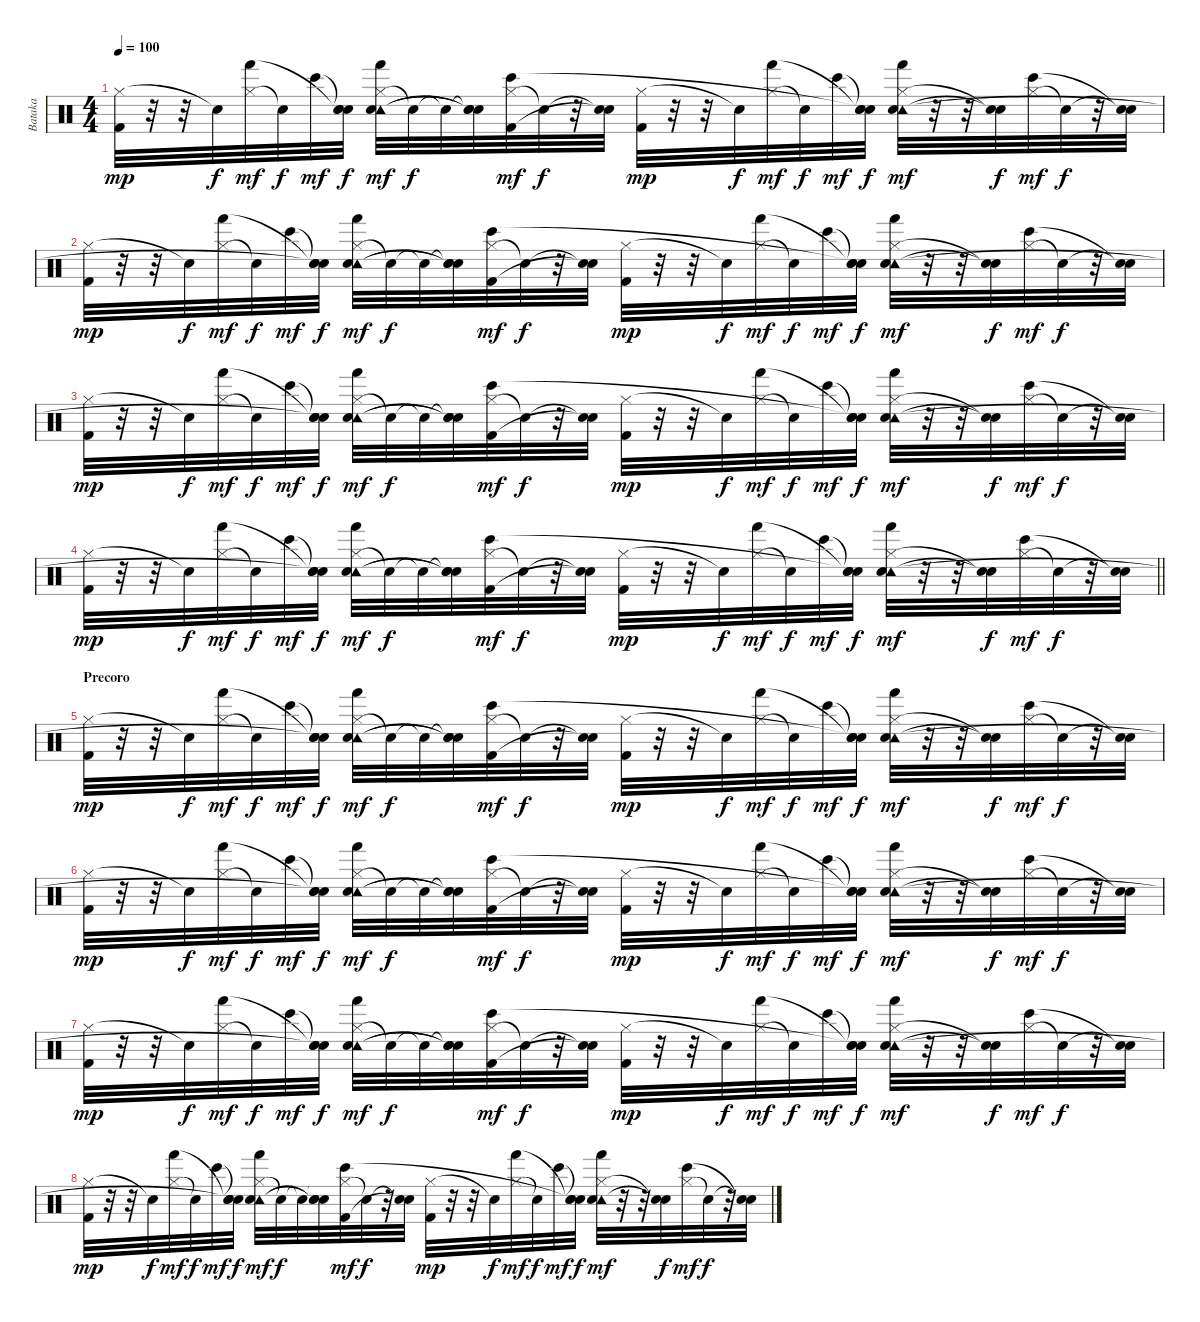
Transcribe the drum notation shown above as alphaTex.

\track ("Bataka" "Bataka") {instrument percussion}
\staff {score}
\articulation defaults
\ts (4 4)
\tempo 100
\clef neutral
\ks c
("Hi-Hat (closed)" "Kick (hit) 2").32{dy mp} r.32 r.32 "Snare (hit)"{t}.32{dy f} ("Hi-Hat (closed)" "Hand (hit)").32{dy mf} "Snare (hit)"{t}.32{dy f} "Bongo High (hit)".32{dy mf} ("Snare (hit)"{t} "Snare (hit)"{t} "Snare (hit)"{t}).32{dy f} ("Hi-Hat (closed)" "Tambourine (hit)" "Electric Snare (hit)" "Hand (hit)").32{dy mf} "Snare (hit)"{t}.32{dy f} "Snare (hit)"{t}.32 ("Snare (hit)"{t} "Snare (hit)"{t} "Snare (hit)"{t}).32 ("Hi-Hat (closed)" "Kick (hit) 2" "Bongo High (hit)").32{dy mf} "Snare (hit)"{t}.32{dy f} r.32 ("Snare (hit)"{t} "Snare (hit)"{t}).32 ("Hi-Hat (closed)" "Kick (hit) 2").32{dy mp} r.32 r.32 "Snare (hit)"{t}.32{dy f} ("Hi-Hat (closed)" "Hand (hit)").32{dy mf} "Snare (hit)"{t}.32{dy f} "Bongo High (hit)".32{dy mf} ("Snare (hit)"{t} "Snare (hit)"{t} "Snare (hit)"{t}).32{dy f} ("Hi-Hat (closed)" "Tambourine (hit)" "Electric Snare (hit)" "Hand (hit)").32{dy mf} r.32 r.32 ("Snare (hit)"{t} "Snare (hit)"{t}).32{dy f} ("Hi-Hat (closed)" "Bongo High (hit)").32{dy mf} "Snare (hit)"{t}.32{dy f} r.32 ("Snare (hit)"{t} "Snare (hit)"{t}).32 |
("Hi-Hat (closed)" "Kick (hit) 2").32{dy mp} r.32 r.32 "Snare (hit)"{t}.32{dy f} ("Hi-Hat (closed)" "Hand (hit)").32{dy mf} "Snare (hit)"{t}.32{dy f} "Bongo High (hit)".32{dy mf} ("Snare (hit)"{t} "Snare (hit)"{t} "Snare (hit)"{t}).32{dy f} ("Hi-Hat (closed)" "Tambourine (hit)" "Electric Snare (hit)" "Hand (hit)").32{dy mf} "Snare (hit)"{t}.32{dy f} "Snare (hit)"{t}.32 ("Snare (hit)"{t} "Snare (hit)"{t} "Snare (hit)"{t}).32 ("Hi-Hat (closed)" "Kick (hit) 2" "Bongo High (hit)").32{dy mf} "Snare (hit)"{t}.32{dy f} r.32 ("Snare (hit)"{t} "Snare (hit)"{t}).32 ("Hi-Hat (closed)" "Kick (hit) 2").32{dy mp} r.32 r.32 "Snare (hit)"{t}.32{dy f} ("Hi-Hat (closed)" "Hand (hit)").32{dy mf} "Snare (hit)"{t}.32{dy f} "Bongo High (hit)".32{dy mf} ("Snare (hit)"{t} "Snare (hit)"{t} "Snare (hit)"{t}).32{dy f} ("Hi-Hat (closed)" "Tambourine (hit)" "Electric Snare (hit)" "Hand (hit)").32{dy mf} r.32 r.32 ("Snare (hit)"{t} "Snare (hit)"{t}).32{dy f} ("Hi-Hat (closed)" "Bongo High (hit)").32{dy mf} "Snare (hit)"{t}.32{dy f} r.32 ("Snare (hit)"{t} "Snare (hit)"{t}).32 |
("Hi-Hat (closed)" "Kick (hit) 2").32{dy mp} r.32 r.32 "Snare (hit)"{t}.32{dy f} ("Hi-Hat (closed)" "Hand (hit)").32{dy mf} "Snare (hit)"{t}.32{dy f} "Bongo High (hit)".32{dy mf} ("Snare (hit)"{t} "Snare (hit)"{t} "Snare (hit)"{t}).32{dy f} ("Hi-Hat (closed)" "Tambourine (hit)" "Electric Snare (hit)" "Hand (hit)").32{dy mf} "Snare (hit)"{t}.32{dy f} "Snare (hit)"{t}.32 ("Snare (hit)"{t} "Snare (hit)"{t} "Snare (hit)"{t}).32 ("Hi-Hat (closed)" "Kick (hit) 2" "Bongo High (hit)").32{dy mf} "Snare (hit)"{t}.32{dy f} r.32 ("Snare (hit)"{t} "Snare (hit)"{t}).32 ("Hi-Hat (closed)" "Kick (hit) 2").32{dy mp} r.32 r.32 "Snare (hit)"{t}.32{dy f} ("Hi-Hat (closed)" "Hand (hit)").32{dy mf} "Snare (hit)"{t}.32{dy f} "Bongo High (hit)".32{dy mf} ("Snare (hit)"{t} "Snare (hit)"{t} "Snare (hit)"{t}).32{dy f} ("Hi-Hat (closed)" "Tambourine (hit)" "Electric Snare (hit)" "Hand (hit)").32{dy mf} r.32 r.32 ("Snare (hit)"{t} "Snare (hit)"{t}).32{dy f} ("Hi-Hat (closed)" "Bongo High (hit)").32{dy mf} "Snare (hit)"{t}.32{dy f} r.32 ("Snare (hit)"{t} "Snare (hit)"{t}).32 |
\barLineRight lightlight
("Hi-Hat (closed)" "Kick (hit) 2").32{dy mp} r.32 r.32 "Snare (hit)"{t}.32{dy f} ("Hi-Hat (closed)" "Hand (hit)").32{dy mf} "Snare (hit)"{t}.32{dy f} "Bongo High (hit)".32{dy mf} ("Snare (hit)"{t} "Snare (hit)"{t} "Snare (hit)"{t}).32{dy f} ("Hi-Hat (closed)" "Tambourine (hit)" "Electric Snare (hit)" "Hand (hit)").32{dy mf} "Snare (hit)"{t}.32{dy f} "Snare (hit)"{t}.32 ("Snare (hit)"{t} "Snare (hit)"{t} "Snare (hit)"{t}).32 ("Hi-Hat (closed)" "Kick (hit) 2" "Bongo High (hit)").32{dy mf} "Snare (hit)"{t}.32{dy f} r.32 ("Snare (hit)"{t} "Snare (hit)"{t}).32 ("Hi-Hat (closed)" "Kick (hit) 2").32{dy mp} r.32 r.32 "Snare (hit)"{t}.32{dy f} ("Hi-Hat (closed)" "Hand (hit)").32{dy mf} "Snare (hit)"{t}.32{dy f} "Bongo High (hit)".32{dy mf} ("Snare (hit)"{t} "Snare (hit)"{t} "Snare (hit)"{t}).32{dy f} ("Hi-Hat (closed)" "Tambourine (hit)" "Electric Snare (hit)" "Hand (hit)").32{dy mf} r.32 r.32 ("Snare (hit)"{t} "Snare (hit)"{t}).32{dy f} ("Hi-Hat (closed)" "Bongo High (hit)").32{dy mf} "Snare (hit)"{t}.32{dy f} r.32 ("Snare (hit)"{t} "Snare (hit)"{t}).32 |
\section ("" "Precoro")
("Hi-Hat (closed)" "Kick (hit) 2").32{dy mp} r.32 r.32 "Snare (hit)"{t}.32{dy f} ("Hi-Hat (closed)" "Hand (hit)").32{dy mf} "Snare (hit)"{t}.32{dy f} "Bongo High (hit)".32{dy mf} ("Snare (hit)"{t} "Snare (hit)"{t} "Snare (hit)"{t}).32{dy f} ("Hi-Hat (closed)" "Tambourine (hit)" "Electric Snare (hit)" "Hand (hit)").32{dy mf} "Snare (hit)"{t}.32{dy f} "Snare (hit)"{t}.32 ("Snare (hit)"{t} "Snare (hit)"{t} "Snare (hit)"{t}).32 ("Hi-Hat (closed)" "Kick (hit) 2" "Bongo High (hit)").32{dy mf} "Snare (hit)"{t}.32{dy f} r.32 ("Snare (hit)"{t} "Snare (hit)"{t}).32 ("Hi-Hat (closed)" "Kick (hit) 2").32{dy mp} r.32 r.32 "Snare (hit)"{t}.32{dy f} ("Hi-Hat (closed)" "Hand (hit)").32{dy mf} "Snare (hit)"{t}.32{dy f} "Bongo High (hit)".32{dy mf} ("Snare (hit)"{t} "Snare (hit)"{t} "Snare (hit)"{t}).32{dy f} ("Hi-Hat (closed)" "Tambourine (hit)" "Electric Snare (hit)" "Hand (hit)").32{dy mf} r.32 r.32 ("Snare (hit)"{t} "Snare (hit)"{t}).32{dy f} ("Hi-Hat (closed)" "Bongo High (hit)").32{dy mf} "Snare (hit)"{t}.32{dy f} r.32 ("Snare (hit)"{t} "Snare (hit)"{t}).32 |
("Hi-Hat (closed)" "Kick (hit) 2").32{dy mp} r.32 r.32 "Snare (hit)"{t}.32{dy f} ("Hi-Hat (closed)" "Hand (hit)").32{dy mf} "Snare (hit)"{t}.32{dy f} "Bongo High (hit)".32{dy mf} ("Snare (hit)"{t} "Snare (hit)"{t} "Snare (hit)"{t}).32{dy f} ("Hi-Hat (closed)" "Tambourine (hit)" "Electric Snare (hit)" "Hand (hit)").32{dy mf} "Snare (hit)"{t}.32{dy f} "Snare (hit)"{t}.32 ("Snare (hit)"{t} "Snare (hit)"{t} "Snare (hit)"{t}).32 ("Hi-Hat (closed)" "Kick (hit) 2" "Bongo High (hit)").32{dy mf} "Snare (hit)"{t}.32{dy f} r.32 ("Snare (hit)"{t} "Snare (hit)"{t}).32 ("Hi-Hat (closed)" "Kick (hit) 2").32{dy mp} r.32 r.32 "Snare (hit)"{t}.32{dy f} ("Hi-Hat (closed)" "Hand (hit)").32{dy mf} "Snare (hit)"{t}.32{dy f} "Bongo High (hit)".32{dy mf} ("Snare (hit)"{t} "Snare (hit)"{t} "Snare (hit)"{t}).32{dy f} ("Hi-Hat (closed)" "Tambourine (hit)" "Electric Snare (hit)" "Hand (hit)").32{dy mf} r.32 r.32 ("Snare (hit)"{t} "Snare (hit)"{t}).32{dy f} ("Hi-Hat (closed)" "Bongo High (hit)").32{dy mf} "Snare (hit)"{t}.32{dy f} r.32 ("Snare (hit)"{t} "Snare (hit)"{t}).32 |
("Hi-Hat (closed)" "Kick (hit) 2").32{dy mp} r.32 r.32 "Snare (hit)"{t}.32{dy f} ("Hi-Hat (closed)" "Hand (hit)").32{dy mf} "Snare (hit)"{t}.32{dy f} "Bongo High (hit)".32{dy mf} ("Snare (hit)"{t} "Snare (hit)"{t} "Snare (hit)"{t}).32{dy f} ("Hi-Hat (closed)" "Tambourine (hit)" "Electric Snare (hit)" "Hand (hit)").32{dy mf} "Snare (hit)"{t}.32{dy f} "Snare (hit)"{t}.32 ("Snare (hit)"{t} "Snare (hit)"{t} "Snare (hit)"{t}).32 ("Hi-Hat (closed)" "Kick (hit) 2" "Bongo High (hit)").32{dy mf} "Snare (hit)"{t}.32{dy f} r.32 ("Snare (hit)"{t} "Snare (hit)"{t}).32 ("Hi-Hat (closed)" "Kick (hit) 2").32{dy mp} r.32 r.32 "Snare (hit)"{t}.32{dy f} ("Hi-Hat (closed)" "Hand (hit)").32{dy mf} "Snare (hit)"{t}.32{dy f} "Bongo High (hit)".32{dy mf} ("Snare (hit)"{t} "Snare (hit)"{t} "Snare (hit)"{t}).32{dy f} ("Hi-Hat (closed)" "Tambourine (hit)" "Electric Snare (hit)" "Hand (hit)").32{dy mf} r.32 r.32 ("Snare (hit)"{t} "Snare (hit)"{t}).32{dy f} ("Hi-Hat (closed)" "Bongo High (hit)").32{dy mf} "Snare (hit)"{t}.32{dy f} r.32 ("Snare (hit)"{t} "Snare (hit)"{t}).32 |
("Hi-Hat (closed)" "Kick (hit) 2").32{dy mp} r.32 r.32 "Snare (hit)"{t}.32{dy f} ("Hi-Hat (closed)" "Hand (hit)").32{dy mf} "Snare (hit)"{t}.32{dy f} "Bongo High (hit)".32{dy mf} ("Snare (hit)"{t} "Snare (hit)"{t} "Snare (hit)"{t}).32{dy f} ("Hi-Hat (closed)" "Tambourine (hit)" "Electric Snare (hit)" "Hand (hit)").32{dy mf} "Snare (hit)"{t}.32{dy f} "Snare (hit)"{t}.32 ("Snare (hit)"{t} "Snare (hit)"{t} "Snare (hit)"{t}).32 ("Hi-Hat (closed)" "Kick (hit) 2" "Bongo High (hit)").32{dy mf} "Snare (hit)"{t}.32{dy f} r.32 ("Snare (hit)"{t} "Snare (hit)"{t}).32 ("Hi-Hat (closed)" "Kick (hit) 2").32{dy mp} r.32 r.32 "Snare (hit)"{t}.32{dy f} ("Hi-Hat (closed)" "Hand (hit)").32{dy mf} "Snare (hit)"{t}.32{dy f} "Bongo High (hit)".32{dy mf} ("Snare (hit)"{t} "Snare (hit)"{t} "Snare (hit)"{t}).32{dy f} ("Hi-Hat (closed)" "Tambourine (hit)" "Electric Snare (hit)" "Hand (hit)").32{dy mf} r.32 r.32 ("Snare (hit)"{t} "Snare (hit)"{t}).32{dy f} ("Hi-Hat (closed)" "Bongo High (hit)").32{dy mf} "Snare (hit)"{t}.32{dy f} r.32 ("Snare (hit)"{t} "Snare (hit)"{t}).32
